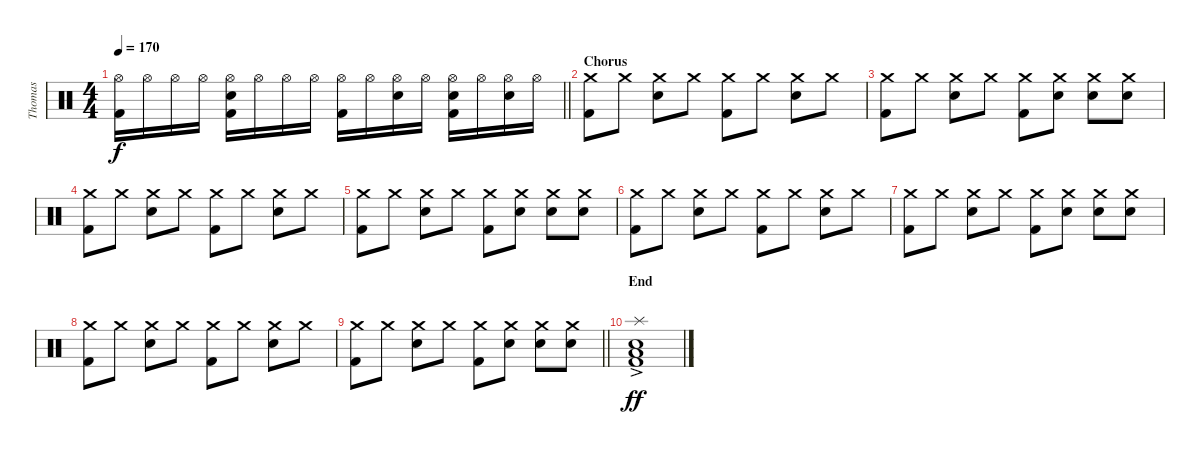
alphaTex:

\track ("Thomas" "Thomas") {instrument percussion}
\staff {score}
\articulation defaults
\ts (4 4)
\tempo 170
\clef neutral
\barLineRight lightlight
\ks c
("Hi-Hat (open)" "Kick (hit) 2").16{dy f} "Hi-Hat (open)".16 "Hi-Hat (open)".16 "Hi-Hat (open)".16 ("Hi-Hat (open)" "Snare (hit) 2" "Kick (hit) 2").16 "Hi-Hat (open)".16 "Hi-Hat (open)".16 "Hi-Hat (open)".16 ("Hi-Hat (open)" "Kick (hit) 2").16 "Hi-Hat (open)".16 ("Hi-Hat (open)" "Snare (hit) 2").16 "Hi-Hat (open)".16 ("Hi-Hat (open)" "Snare (hit) 2" "Kick (hit) 2").16 "Hi-Hat (open)".16 ("Hi-Hat (open)" "Snare (hit) 2").16 "Hi-Hat (open)".16 |
\section ("" "Chorus")
("Crash medium (hit)" "Kick (hit) 2").8 "Crash medium (hit)".8 ("Crash medium (hit)" "Snare (hit) 2").8 "Crash medium (hit)".8 ("Crash medium (hit)" "Kick (hit) 2").8 "Crash medium (hit)".8 ("Crash medium (hit)" "Snare (hit) 2").8 "Crash medium (hit)".8 |
("Crash medium (hit)" "Kick (hit) 2").8 "Crash medium (hit)".8 ("Crash medium (hit)" "Snare (hit) 2").8 "Crash medium (hit)".8 ("Crash medium (hit)" "Kick (hit) 2").8 ("Crash medium (hit)" "Snare (hit) 2").8 ("Crash medium (hit)" "Snare (hit) 2").8 ("Crash medium (hit)" "Snare (hit) 2").8 |
("Crash medium (hit)" "Kick (hit) 2").8 "Crash medium (hit)".8 ("Crash medium (hit)" "Snare (hit) 2").8 "Crash medium (hit)".8 ("Crash medium (hit)" "Kick (hit) 2").8 "Crash medium (hit)".8 ("Crash medium (hit)" "Snare (hit) 2").8 "Crash medium (hit)".8 |
("Crash medium (hit)" "Kick (hit) 2").8 "Crash medium (hit)".8 ("Crash medium (hit)" "Snare (hit) 2").8 "Crash medium (hit)".8 ("Crash medium (hit)" "Kick (hit) 2").8 ("Crash medium (hit)" "Snare (hit) 2").8 ("Crash medium (hit)" "Snare (hit) 2").8 ("Crash medium (hit)" "Snare (hit) 2").8 |
("Crash medium (hit)" "Kick (hit) 2").8 "Crash medium (hit)".8 ("Crash medium (hit)" "Snare (hit) 2").8 "Crash medium (hit)".8 ("Crash medium (hit)" "Kick (hit) 2").8 "Crash medium (hit)".8 ("Crash medium (hit)" "Snare (hit) 2").8 "Crash medium (hit)".8 |
("Crash medium (hit)" "Kick (hit) 2").8 "Crash medium (hit)".8 ("Crash medium (hit)" "Snare (hit) 2").8 "Crash medium (hit)".8 ("Crash medium (hit)" "Kick (hit) 2").8 ("Crash medium (hit)" "Snare (hit) 2").8 ("Crash medium (hit)" "Snare (hit) 2").8 ("Crash medium (hit)" "Snare (hit) 2").8 |
("Crash medium (hit)" "Kick (hit) 2").8 "Crash medium (hit)".8 ("Crash medium (hit)" "Snare (hit) 2").8 "Crash medium (hit)".8 ("Crash medium (hit)" "Kick (hit) 2").8 "Crash medium (hit)".8 ("Crash medium (hit)" "Snare (hit) 2").8 "Crash medium (hit)".8 |
\barLineRight lightlight
("Crash medium (hit)" "Kick (hit) 2").8 "Crash medium (hit)".8 ("Crash medium (hit)" "Snare (hit) 2").8 "Crash medium (hit)".8 ("Crash medium (hit)" "Kick (hit) 2").8 ("Crash medium (hit)" "Snare (hit) 2").8 ("Crash medium (hit)" "Snare (hit) 2").8 ("Crash medium (hit)" "Snare (hit) 2").8 |
\section ("" "End")
("Splash (hit)"{ac} "Low Tom (hit)"{ac} "Snare (hit) 2"{ac} "Kick (hit) 2"{ac}).1{dy ff}
